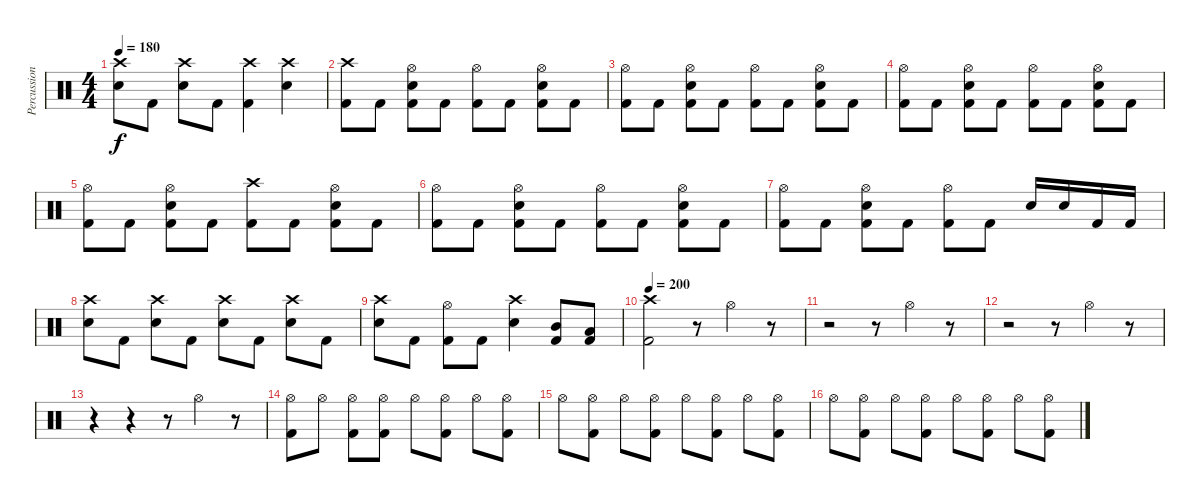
\track ("Percussion" "Percussion") {instrument percussion}
\staff {score}
\articulation defaults
\ts (4 4)
\tempo 180
\clef neutral
\ks c
("Crash high (hit)" "Snare (hit) 2").8{dy f} "Kick (hit) 2".8 ("Crash high (hit)" "Snare (hit) 2").8 "Kick (hit) 2".8 ("Crash high (hit)" "Kick (hit) 2").4 ("Crash high (hit)" "Snare (hit) 2").4 |
("Crash high (hit)" "Kick (hit) 2").8 "Kick (hit) 2".8 ("Hi-Hat (open)" "Snare (hit) 2" "Kick (hit) 2").8 "Kick (hit) 2".8 ("Hi-Hat (open)" "Kick (hit) 2").8 "Kick (hit) 2".8 ("Hi-Hat (open)" "Snare (hit) 2" "Kick (hit) 2").8 "Kick (hit) 2".8 |
("Hi-Hat (open)" "Kick (hit) 2").8 "Kick (hit) 2".8 ("Hi-Hat (open)" "Snare (hit) 2" "Kick (hit) 2").8 "Kick (hit) 2".8 ("Hi-Hat (open)" "Kick (hit) 2").8 "Kick (hit) 2".8 ("Hi-Hat (open)" "Snare (hit) 2" "Kick (hit) 2").8 "Kick (hit) 2".8 |
("Hi-Hat (open)" "Kick (hit) 2").8 "Kick (hit) 2".8 ("Hi-Hat (open)" "Snare (hit) 2" "Kick (hit) 2").8 "Kick (hit) 2".8 ("Hi-Hat (open)" "Kick (hit) 2").8 "Kick (hit) 2".8 ("Hi-Hat (open)" "Snare (hit) 2" "Kick (hit) 2").8 "Kick (hit) 2".8 |
("Hi-Hat (open)" "Kick (hit) 2").8 "Kick (hit) 2".8 ("Hi-Hat (open)" "Snare (hit) 2" "Kick (hit) 2").8 "Kick (hit) 2".8 ("Crash high (hit)" "Kick (hit) 2").8 "Kick (hit) 2".8 ("Hi-Hat (open)" "Snare (hit) 2" "Kick (hit) 2").8 "Kick (hit) 2".8 |
("Hi-Hat (open)" "Kick (hit) 2").8 "Kick (hit) 2".8 ("Hi-Hat (open)" "Snare (hit) 2" "Kick (hit) 2").8 "Kick (hit) 2".8 ("Hi-Hat (open)" "Kick (hit) 2").8 "Kick (hit) 2".8 ("Hi-Hat (open)" "Snare (hit) 2" "Kick (hit) 2").8 "Kick (hit) 2".8 |
("Hi-Hat (open)" "Kick (hit) 2").8 "Kick (hit) 2".8 ("Hi-Hat (open)" "Snare (hit) 2" "Kick (hit) 2").8 "Kick (hit) 2".8 ("Hi-Hat (open)" "Kick (hit) 2").8 "Kick (hit) 2".8 "Snare (hit) 2".16 "Snare (hit) 2".16 "Kick (hit) 2".16 "Kick (hit) 2".16 |
("Crash high (hit)" "Snare (hit) 2").8 "Kick (hit) 2".8 ("Crash high (hit)" "Snare (hit) 2").8 "Kick (hit) 2".8 ("Crash high (hit)" "Snare (hit) 2").8 "Kick (hit) 2".8 ("Crash high (hit)" "Snare (hit) 2").8 "Kick (hit) 2".8 |
("Crash high (hit)" "Snare (hit) 2").8 "Kick (hit) 2".8 ("Hi-Hat (open)" "Kick (hit) 2").8 "Kick (hit) 2".8 ("Crash high (hit)" "Snare (hit) 2").4 ("Mid Tom (hit)" "Kick (hit) 2").8 ("Low Tom (hit)" "Kick (hit) 2").8 |
\tempo 200
("Crash high (hit)" "Kick (hit) 2").2 r.8 "Hi-Hat (open)".4 r.8 |
r.2 r.8 "Hi-Hat (open)".4 r.8 |
r.2 r.8 "Hi-Hat (open)".4 r.8 |
r.4 r.4 r.8 "Hi-Hat (open)".4 r.8 |
("Hi-Hat (open)" "Kick (hit) 2").8 "Hi-Hat (open)".8 ("Hi-Hat (open)" "Kick (hit) 2").8 ("Hi-Hat (open)" "Kick (hit) 2").8 "Hi-Hat (open)".8 ("Hi-Hat (open)" "Kick (hit) 2").8 "Hi-Hat (open)".8 ("Hi-Hat (open)" "Kick (hit) 2").8 |
"Hi-Hat (open)".8 ("Hi-Hat (open)" "Kick (hit) 2").8 "Hi-Hat (open)".8 ("Hi-Hat (open)" "Kick (hit) 2").8 "Hi-Hat (open)".8 ("Hi-Hat (open)" "Kick (hit) 2").8 "Hi-Hat (open)".8 ("Hi-Hat (open)" "Kick (hit) 2").8 |
"Hi-Hat (open)".8 ("Hi-Hat (open)" "Kick (hit) 2").8 "Hi-Hat (open)".8 ("Hi-Hat (open)" "Kick (hit) 2").8 "Hi-Hat (open)".8 ("Hi-Hat (open)" "Kick (hit) 2").8 "Hi-Hat (open)".8 ("Hi-Hat (open)" "Kick (hit) 2").8
